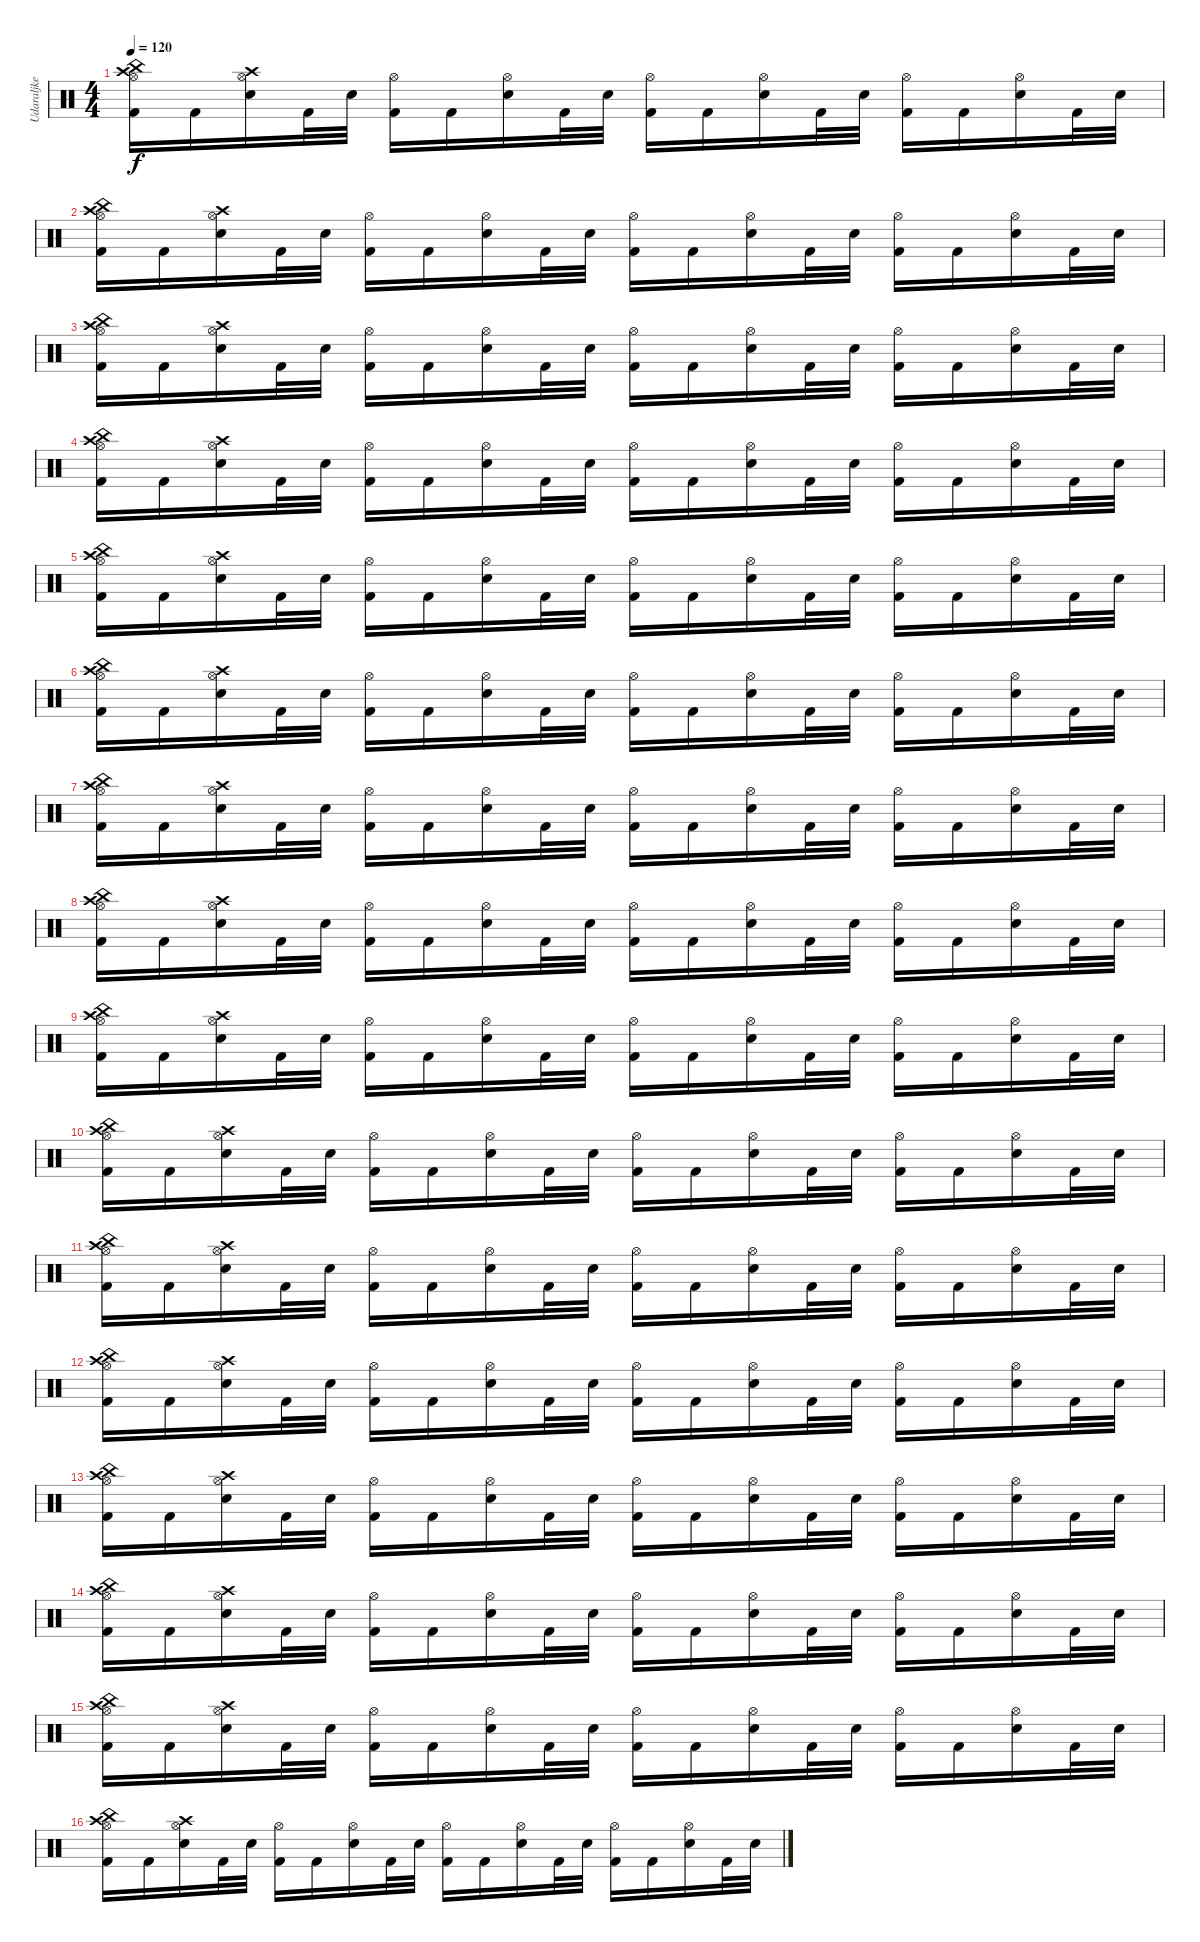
\track ("Udaraljke" "Udaraljke") {instrument percussion}
\staff {score}
\articulation defaults
\ts (4 4)
\tempo 120
\clef neutral
\ks c
("China (hit)" "Crash high (hit)" "Hi-Hat (open)" "Kick (hit) 2").16{dy f} "Kick (hit) 2".16 ("Crash high (hit)" "Hi-Hat (open)" "Electric Snare (hit)").16 "Kick (hit) 2".32 "Electric Snare (hit)".32 ("Hi-Hat (open)" "Kick (hit) 2").16 "Kick (hit) 2".16 ("Hi-Hat (open)" "Electric Snare (hit)").16 "Kick (hit) 2".32 "Electric Snare (hit)".32 ("Hi-Hat (open)" "Kick (hit) 2").16 "Kick (hit) 2".16 ("Hi-Hat (open)" "Electric Snare (hit)").16 "Kick (hit) 2".32 "Electric Snare (hit)".32 ("Hi-Hat (open)" "Kick (hit) 2").16 "Kick (hit) 2".16 ("Hi-Hat (open)" "Electric Snare (hit)").16 "Kick (hit) 2".32 "Electric Snare (hit)".32 |
("China (hit)" "Crash high (hit)" "Hi-Hat (open)" "Kick (hit) 2").16 "Kick (hit) 2".16 ("Crash high (hit)" "Hi-Hat (open)" "Electric Snare (hit)").16 "Kick (hit) 2".32 "Electric Snare (hit)".32 ("Hi-Hat (open)" "Kick (hit) 2").16 "Kick (hit) 2".16 ("Hi-Hat (open)" "Electric Snare (hit)").16 "Kick (hit) 2".32 "Electric Snare (hit)".32 ("Hi-Hat (open)" "Kick (hit) 2").16 "Kick (hit) 2".16 ("Hi-Hat (open)" "Electric Snare (hit)").16 "Kick (hit) 2".32 "Electric Snare (hit)".32 ("Hi-Hat (open)" "Kick (hit) 2").16 "Kick (hit) 2".16 ("Hi-Hat (open)" "Electric Snare (hit)").16 "Kick (hit) 2".32 "Electric Snare (hit)".32 |
("China (hit)" "Crash high (hit)" "Hi-Hat (open)" "Kick (hit) 2").16 "Kick (hit) 2".16 ("Crash high (hit)" "Hi-Hat (open)" "Electric Snare (hit)").16 "Kick (hit) 2".32 "Electric Snare (hit)".32 ("Hi-Hat (open)" "Kick (hit) 2").16 "Kick (hit) 2".16 ("Hi-Hat (open)" "Electric Snare (hit)").16 "Kick (hit) 2".32 "Electric Snare (hit)".32 ("Hi-Hat (open)" "Kick (hit) 2").16 "Kick (hit) 2".16 ("Hi-Hat (open)" "Electric Snare (hit)").16 "Kick (hit) 2".32 "Electric Snare (hit)".32 ("Hi-Hat (open)" "Kick (hit) 2").16 "Kick (hit) 2".16 ("Hi-Hat (open)" "Electric Snare (hit)").16 "Kick (hit) 2".32 "Electric Snare (hit)".32 |
("China (hit)" "Crash high (hit)" "Hi-Hat (open)" "Kick (hit) 2").16 "Kick (hit) 2".16 ("Crash high (hit)" "Hi-Hat (open)" "Electric Snare (hit)").16 "Kick (hit) 2".32 "Electric Snare (hit)".32 ("Hi-Hat (open)" "Kick (hit) 2").16 "Kick (hit) 2".16 ("Hi-Hat (open)" "Electric Snare (hit)").16 "Kick (hit) 2".32 "Electric Snare (hit)".32 ("Hi-Hat (open)" "Kick (hit) 2").16 "Kick (hit) 2".16 ("Hi-Hat (open)" "Electric Snare (hit)").16 "Kick (hit) 2".32 "Electric Snare (hit)".32 ("Hi-Hat (open)" "Kick (hit) 2").16 "Kick (hit) 2".16 ("Hi-Hat (open)" "Electric Snare (hit)").16 "Kick (hit) 2".32 "Electric Snare (hit)".32 |
("China (hit)" "Crash high (hit)" "Hi-Hat (open)" "Kick (hit) 2").16 "Kick (hit) 2".16 ("Crash high (hit)" "Hi-Hat (open)" "Electric Snare (hit)").16 "Kick (hit) 2".32 "Electric Snare (hit)".32 ("Hi-Hat (open)" "Kick (hit) 2").16 "Kick (hit) 2".16 ("Hi-Hat (open)" "Electric Snare (hit)").16 "Kick (hit) 2".32 "Electric Snare (hit)".32 ("Hi-Hat (open)" "Kick (hit) 2").16 "Kick (hit) 2".16 ("Hi-Hat (open)" "Electric Snare (hit)").16 "Kick (hit) 2".32 "Electric Snare (hit)".32 ("Hi-Hat (open)" "Kick (hit) 2").16 "Kick (hit) 2".16 ("Hi-Hat (open)" "Electric Snare (hit)").16 "Kick (hit) 2".32 "Electric Snare (hit)".32 |
("China (hit)" "Crash high (hit)" "Hi-Hat (open)" "Kick (hit) 2").16 "Kick (hit) 2".16 ("Crash high (hit)" "Hi-Hat (open)" "Electric Snare (hit)").16 "Kick (hit) 2".32 "Electric Snare (hit)".32 ("Hi-Hat (open)" "Kick (hit) 2").16 "Kick (hit) 2".16 ("Hi-Hat (open)" "Electric Snare (hit)").16 "Kick (hit) 2".32 "Electric Snare (hit)".32 ("Hi-Hat (open)" "Kick (hit) 2").16 "Kick (hit) 2".16 ("Hi-Hat (open)" "Electric Snare (hit)").16 "Kick (hit) 2".32 "Electric Snare (hit)".32 ("Hi-Hat (open)" "Kick (hit) 2").16 "Kick (hit) 2".16 ("Hi-Hat (open)" "Electric Snare (hit)").16 "Kick (hit) 2".32 "Electric Snare (hit)".32 |
("China (hit)" "Crash high (hit)" "Hi-Hat (open)" "Kick (hit) 2").16 "Kick (hit) 2".16 ("Crash high (hit)" "Hi-Hat (open)" "Electric Snare (hit)").16 "Kick (hit) 2".32 "Electric Snare (hit)".32 ("Hi-Hat (open)" "Kick (hit) 2").16 "Kick (hit) 2".16 ("Hi-Hat (open)" "Electric Snare (hit)").16 "Kick (hit) 2".32 "Electric Snare (hit)".32 ("Hi-Hat (open)" "Kick (hit) 2").16 "Kick (hit) 2".16 ("Hi-Hat (open)" "Electric Snare (hit)").16 "Kick (hit) 2".32 "Electric Snare (hit)".32 ("Hi-Hat (open)" "Kick (hit) 2").16 "Kick (hit) 2".16 ("Hi-Hat (open)" "Electric Snare (hit)").16 "Kick (hit) 2".32 "Electric Snare (hit)".32 |
("China (hit)" "Crash high (hit)" "Hi-Hat (open)" "Kick (hit) 2").16 "Kick (hit) 2".16 ("Crash high (hit)" "Hi-Hat (open)" "Electric Snare (hit)").16 "Kick (hit) 2".32 "Electric Snare (hit)".32 ("Hi-Hat (open)" "Kick (hit) 2").16 "Kick (hit) 2".16 ("Hi-Hat (open)" "Electric Snare (hit)").16 "Kick (hit) 2".32 "Electric Snare (hit)".32 ("Hi-Hat (open)" "Kick (hit) 2").16 "Kick (hit) 2".16 ("Hi-Hat (open)" "Electric Snare (hit)").16 "Kick (hit) 2".32 "Electric Snare (hit)".32 ("Hi-Hat (open)" "Kick (hit) 2").16 "Kick (hit) 2".16 ("Hi-Hat (open)" "Electric Snare (hit)").16 "Kick (hit) 2".32 "Electric Snare (hit)".32 |
("China (hit)" "Crash high (hit)" "Hi-Hat (open)" "Kick (hit) 2").16 "Kick (hit) 2".16 ("Crash high (hit)" "Hi-Hat (open)" "Electric Snare (hit)").16 "Kick (hit) 2".32 "Electric Snare (hit)".32 ("Hi-Hat (open)" "Kick (hit) 2").16 "Kick (hit) 2".16 ("Hi-Hat (open)" "Electric Snare (hit)").16 "Kick (hit) 2".32 "Electric Snare (hit)".32 ("Hi-Hat (open)" "Kick (hit) 2").16 "Kick (hit) 2".16 ("Hi-Hat (open)" "Electric Snare (hit)").16 "Kick (hit) 2".32 "Electric Snare (hit)".32 ("Hi-Hat (open)" "Kick (hit) 2").16 "Kick (hit) 2".16 ("Hi-Hat (open)" "Electric Snare (hit)").16 "Kick (hit) 2".32 "Electric Snare (hit)".32 |
("China (hit)" "Crash high (hit)" "Hi-Hat (open)" "Kick (hit) 2").16 "Kick (hit) 2".16 ("Crash high (hit)" "Hi-Hat (open)" "Electric Snare (hit)").16 "Kick (hit) 2".32 "Electric Snare (hit)".32 ("Hi-Hat (open)" "Kick (hit) 2").16 "Kick (hit) 2".16 ("Hi-Hat (open)" "Electric Snare (hit)").16 "Kick (hit) 2".32 "Electric Snare (hit)".32 ("Hi-Hat (open)" "Kick (hit) 2").16 "Kick (hit) 2".16 ("Hi-Hat (open)" "Electric Snare (hit)").16 "Kick (hit) 2".32 "Electric Snare (hit)".32 ("Hi-Hat (open)" "Kick (hit) 2").16 "Kick (hit) 2".16 ("Hi-Hat (open)" "Electric Snare (hit)").16 "Kick (hit) 2".32 "Electric Snare (hit)".32 |
("China (hit)" "Crash high (hit)" "Hi-Hat (open)" "Kick (hit) 2").16 "Kick (hit) 2".16 ("Crash high (hit)" "Hi-Hat (open)" "Electric Snare (hit)").16 "Kick (hit) 2".32 "Electric Snare (hit)".32 ("Hi-Hat (open)" "Kick (hit) 2").16 "Kick (hit) 2".16 ("Hi-Hat (open)" "Electric Snare (hit)").16 "Kick (hit) 2".32 "Electric Snare (hit)".32 ("Hi-Hat (open)" "Kick (hit) 2").16 "Kick (hit) 2".16 ("Hi-Hat (open)" "Electric Snare (hit)").16 "Kick (hit) 2".32 "Electric Snare (hit)".32 ("Hi-Hat (open)" "Kick (hit) 2").16 "Kick (hit) 2".16 ("Hi-Hat (open)" "Electric Snare (hit)").16 "Kick (hit) 2".32 "Electric Snare (hit)".32 |
("China (hit)" "Crash high (hit)" "Hi-Hat (open)" "Kick (hit) 2").16 "Kick (hit) 2".16 ("Crash high (hit)" "Hi-Hat (open)" "Electric Snare (hit)").16 "Kick (hit) 2".32 "Electric Snare (hit)".32 ("Hi-Hat (open)" "Kick (hit) 2").16 "Kick (hit) 2".16 ("Hi-Hat (open)" "Electric Snare (hit)").16 "Kick (hit) 2".32 "Electric Snare (hit)".32 ("Hi-Hat (open)" "Kick (hit) 2").16 "Kick (hit) 2".16 ("Hi-Hat (open)" "Electric Snare (hit)").16 "Kick (hit) 2".32 "Electric Snare (hit)".32 ("Hi-Hat (open)" "Kick (hit) 2").16 "Kick (hit) 2".16 ("Hi-Hat (open)" "Electric Snare (hit)").16 "Kick (hit) 2".32 "Electric Snare (hit)".32 |
("China (hit)" "Crash high (hit)" "Hi-Hat (open)" "Kick (hit) 2").16 "Kick (hit) 2".16 ("Crash high (hit)" "Hi-Hat (open)" "Electric Snare (hit)").16 "Kick (hit) 2".32 "Electric Snare (hit)".32 ("Hi-Hat (open)" "Kick (hit) 2").16 "Kick (hit) 2".16 ("Hi-Hat (open)" "Electric Snare (hit)").16 "Kick (hit) 2".32 "Electric Snare (hit)".32 ("Hi-Hat (open)" "Kick (hit) 2").16 "Kick (hit) 2".16 ("Hi-Hat (open)" "Electric Snare (hit)").16 "Kick (hit) 2".32 "Electric Snare (hit)".32 ("Hi-Hat (open)" "Kick (hit) 2").16 "Kick (hit) 2".16 ("Hi-Hat (open)" "Electric Snare (hit)").16 "Kick (hit) 2".32 "Electric Snare (hit)".32 |
("China (hit)" "Crash high (hit)" "Hi-Hat (open)" "Kick (hit) 2").16 "Kick (hit) 2".16 ("Crash high (hit)" "Hi-Hat (open)" "Electric Snare (hit)").16 "Kick (hit) 2".32 "Electric Snare (hit)".32 ("Hi-Hat (open)" "Kick (hit) 2").16 "Kick (hit) 2".16 ("Hi-Hat (open)" "Electric Snare (hit)").16 "Kick (hit) 2".32 "Electric Snare (hit)".32 ("Hi-Hat (open)" "Kick (hit) 2").16 "Kick (hit) 2".16 ("Hi-Hat (open)" "Electric Snare (hit)").16 "Kick (hit) 2".32 "Electric Snare (hit)".32 ("Hi-Hat (open)" "Kick (hit) 2").16 "Kick (hit) 2".16 ("Hi-Hat (open)" "Electric Snare (hit)").16 "Kick (hit) 2".32 "Electric Snare (hit)".32 |
("China (hit)" "Crash high (hit)" "Hi-Hat (open)" "Kick (hit) 2").16 "Kick (hit) 2".16 ("Crash high (hit)" "Hi-Hat (open)" "Electric Snare (hit)").16 "Kick (hit) 2".32 "Electric Snare (hit)".32 ("Hi-Hat (open)" "Kick (hit) 2").16 "Kick (hit) 2".16 ("Hi-Hat (open)" "Electric Snare (hit)").16 "Kick (hit) 2".32 "Electric Snare (hit)".32 ("Hi-Hat (open)" "Kick (hit) 2").16 "Kick (hit) 2".16 ("Hi-Hat (open)" "Electric Snare (hit)").16 "Kick (hit) 2".32 "Electric Snare (hit)".32 ("Hi-Hat (open)" "Kick (hit) 2").16 "Kick (hit) 2".16 ("Hi-Hat (open)" "Electric Snare (hit)").16 "Kick (hit) 2".32 "Electric Snare (hit)".32 |
("China (hit)" "Crash high (hit)" "Hi-Hat (open)" "Kick (hit) 2").16 "Kick (hit) 2".16 ("Crash high (hit)" "Hi-Hat (open)" "Electric Snare (hit)").16 "Kick (hit) 2".32 "Electric Snare (hit)".32 ("Hi-Hat (open)" "Kick (hit) 2").16 "Kick (hit) 2".16 ("Hi-Hat (open)" "Electric Snare (hit)").16 "Kick (hit) 2".32 "Electric Snare (hit)".32 ("Hi-Hat (open)" "Kick (hit) 2").16 "Kick (hit) 2".16 ("Hi-Hat (open)" "Electric Snare (hit)").16 "Kick (hit) 2".32 "Electric Snare (hit)".32 ("Hi-Hat (open)" "Kick (hit) 2").16 "Kick (hit) 2".16 ("Hi-Hat (open)" "Electric Snare (hit)").16 "Kick (hit) 2".32 "Electric Snare (hit)".32
